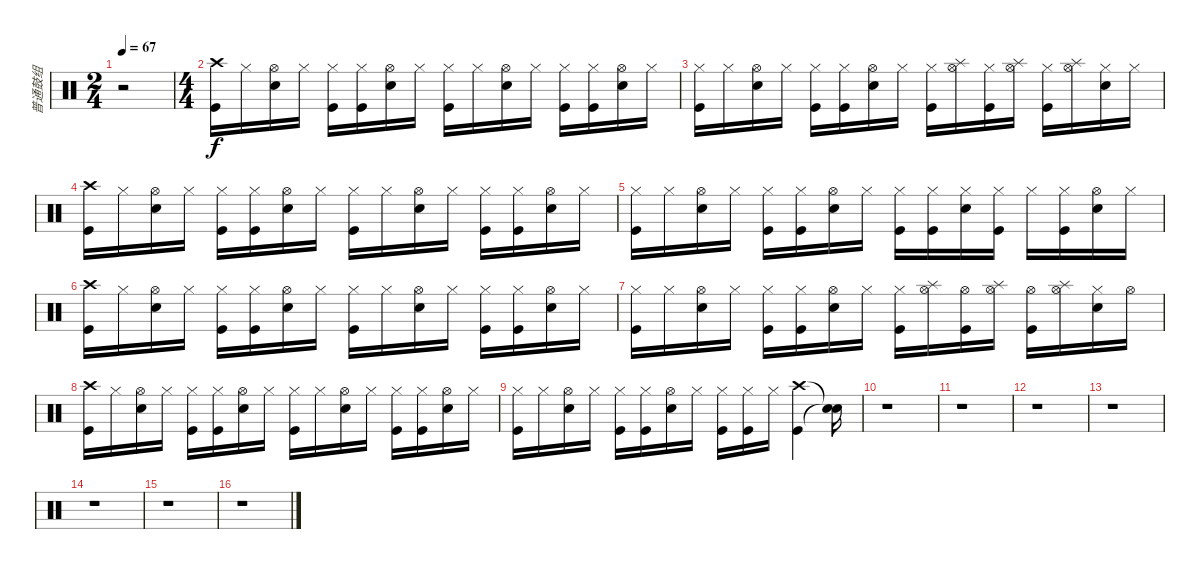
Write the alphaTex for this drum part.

\track ("普通鼓组" "普通鼓组") {instrument percussion}
\staff {score}
\articulation defaults
\ts (2 4)
\tempo 67
\clef neutral
\ks c
r.2{dy f} |
\ts (4 4)
("Crash high (hit)" "Kick (hit)").16 "Hi-Hat (closed)".16 ("Hi-Hat (open)" "Snare (hit) 2").16 "Hi-Hat (closed)".16 ("Hi-Hat (closed)" "Kick (hit)").16 ("Hi-Hat (closed)" "Kick (hit)").16 ("Hi-Hat (open)" "Snare (hit) 2").16 "Hi-Hat (closed)".16 ("Hi-Hat (closed)" "Kick (hit)").16 "Hi-Hat (closed)".16 ("Hi-Hat (open)" "Snare (hit) 2").16 "Hi-Hat (closed)".16 ("Hi-Hat (closed)" "Kick (hit)").16 ("Hi-Hat (closed)" "Kick (hit)").16 ("Hi-Hat (open)" "Snare (hit) 2").16 "Hi-Hat (closed)".16 |
("Hi-Hat (closed)" "Kick (hit)").16 "Hi-Hat (closed)".16 ("Hi-Hat (open)" "Snare (hit) 2").16 "Hi-Hat (closed)".16 ("Hi-Hat (closed)" "Kick (hit)").16 ("Hi-Hat (closed)" "Kick (hit)").16 ("Hi-Hat (open)" "Snare (hit) 2").16 "Hi-Hat (closed)".16 ("Hi-Hat (closed)" "Kick (hit)").16 ("Hi-Hat (open)" "Splash (hit)").16 ("Hi-Hat (closed)" "Kick (hit)").16 ("Hi-Hat (open)" "Splash (hit)").16 ("Hi-Hat (closed)" "Kick (hit)").16 ("Hi-Hat (open)" "Splash (hit)").16 ("Hi-Hat (closed)" "Snare (hit) 2").16 "Hi-Hat (closed)".16 |
("Crash high (hit)" "Kick (hit)").16 "Hi-Hat (closed)".16 ("Hi-Hat (open)" "Snare (hit) 2").16 "Hi-Hat (closed)".16 ("Hi-Hat (closed)" "Kick (hit)").16 ("Hi-Hat (closed)" "Kick (hit)").16 ("Hi-Hat (open)" "Snare (hit) 2").16 "Hi-Hat (closed)".16 ("Hi-Hat (closed)" "Kick (hit)").16 "Hi-Hat (closed)".16 ("Hi-Hat (open)" "Snare (hit) 2").16 "Hi-Hat (closed)".16 ("Hi-Hat (closed)" "Kick (hit)").16 ("Hi-Hat (closed)" "Kick (hit)").16 ("Hi-Hat (open)" "Snare (hit) 2").16 "Hi-Hat (closed)".16 |
("Hi-Hat (closed)" "Kick (hit)").16 "Hi-Hat (closed)".16 ("Hi-Hat (open)" "Snare (hit) 2").16 "Hi-Hat (closed)".16 ("Hi-Hat (closed)" "Kick (hit)").16 ("Hi-Hat (closed)" "Kick (hit)").16 ("Hi-Hat (open)" "Snare (hit) 2").16 "Hi-Hat (closed)".16 ("Hi-Hat (closed)" "Kick (hit)").16 ("Hi-Hat (closed)" "Kick (hit)").16 ("Hi-Hat (closed)" "Snare (hit) 2").16 ("Hi-Hat (closed)" "Kick (hit)").16 "Hi-Hat (closed)".16 ("Hi-Hat (closed)" "Kick (hit)").16 ("Hi-Hat (open)" "Snare (hit) 2").16 "Hi-Hat (closed)".16 |
("Crash high (hit)" "Kick (hit)").16 "Hi-Hat (closed)".16 ("Hi-Hat (open)" "Snare (hit) 2").16 "Hi-Hat (closed)".16 ("Hi-Hat (closed)" "Kick (hit)").16 ("Hi-Hat (closed)" "Kick (hit)").16 ("Hi-Hat (open)" "Snare (hit) 2").16 "Hi-Hat (closed)".16 ("Hi-Hat (closed)" "Kick (hit)").16 "Hi-Hat (closed)".16 ("Hi-Hat (open)" "Snare (hit) 2").16 "Hi-Hat (closed)".16 ("Hi-Hat (closed)" "Kick (hit)").16 ("Hi-Hat (closed)" "Kick (hit)").16 ("Hi-Hat (open)" "Snare (hit) 2").16 "Hi-Hat (closed)".16 |
("Hi-Hat (closed)" "Kick (hit)").16 "Hi-Hat (closed)".16 ("Hi-Hat (open)" "Snare (hit) 2").16 "Hi-Hat (closed)".16 ("Hi-Hat (closed)" "Kick (hit)").16 ("Hi-Hat (closed)" "Kick (hit)").16 ("Hi-Hat (open)" "Snare (hit) 2").16 "Hi-Hat (closed)".16 ("Hi-Hat (closed)" "Kick (hit)").16 ("Hi-Hat (open)" "Splash (hit)").16 ("Hi-Hat (open)" "Kick (hit)").16 ("Hi-Hat (open)" "Splash (hit)").16 ("Hi-Hat (open)" "Kick (hit)").16 ("Hi-Hat (open)" "Splash (hit)").16 ("Hi-Hat (closed)" "Snare (hit) 2").16 "Hi-Hat (open)".16 |
("Crash high (hit)" "Kick (hit)").16 "Hi-Hat (closed)".16 ("Hi-Hat (open)" "Snare (hit) 2").16 "Hi-Hat (closed)".16 ("Hi-Hat (closed)" "Kick (hit)").16 ("Hi-Hat (closed)" "Kick (hit)").16 ("Hi-Hat (open)" "Snare (hit) 2").16 "Hi-Hat (closed)".16 ("Hi-Hat (closed)" "Kick (hit)").16 "Hi-Hat (closed)".16 ("Hi-Hat (open)" "Snare (hit) 2").16 "Hi-Hat (closed)".16 ("Hi-Hat (closed)" "Kick (hit)").16 ("Hi-Hat (closed)" "Kick (hit)").16 ("Hi-Hat (open)" "Snare (hit) 2").16 "Hi-Hat (closed)".16 |
("Hi-Hat (closed)" "Kick (hit)").16 "Hi-Hat (closed)".16 ("Hi-Hat (open)" "Snare (hit) 2").16 "Hi-Hat (closed)".16 ("Hi-Hat (closed)" "Kick (hit)").16 ("Hi-Hat (closed)" "Kick (hit)").16 ("Hi-Hat (open)" "Snare (hit) 2").16 "Hi-Hat (closed)".16 ("Hi-Hat (closed)" "Kick (hit)").16 ("Hi-Hat (closed)" "Kick (hit)").16 "Hi-Hat (closed)".16 ("Crash high (hit)" "Kick (hit)").4 ("Snare (hit)"{t} "Snare (hit)"{t}).16 |
r.1 |
r.1 |
r.1 |
r.1 |
r.1 |
r.1 |
r.1
